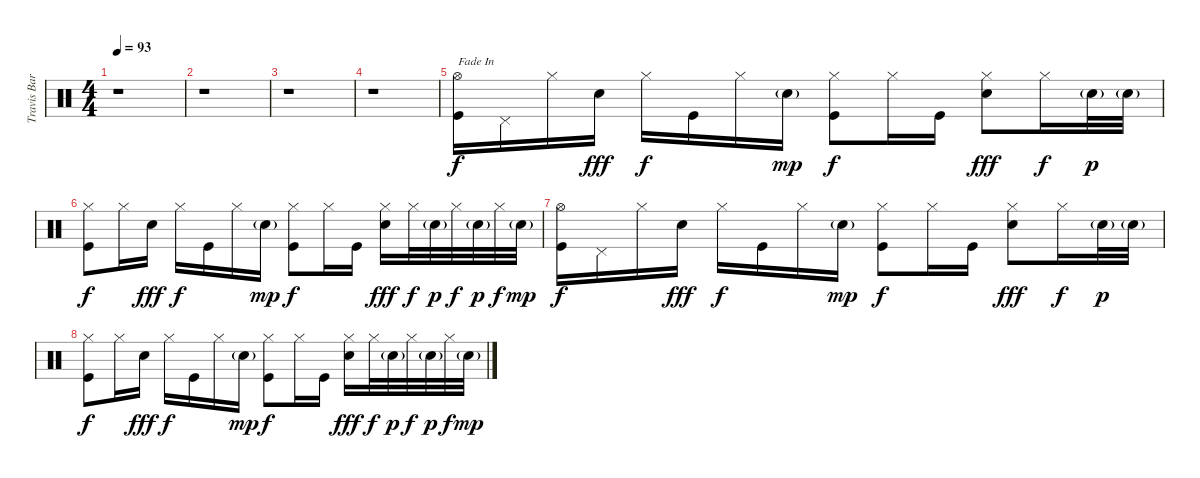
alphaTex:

\track ("Travis Barker" "Travis Bar") {instrument percussion}
\staff {score}
\articulation defaults
\ts (4 4)
\tempo 93
\clef neutral
\ks c
r.1{dy mp} |
r.1 |
r.1 |
r.1 |
("Hi-Hat (open)" "Kick (hit)").16{txt "Fade In" dy f} "Pedal Hi-Hat (hit)".16 "Hi-Hat (closed)".16 "Electric Snare (hit)".16{dy fff} "Hi-Hat (closed)".16{dy f} "Kick (hit)".16 "Hi-Hat (closed)".16 "Electric Snare (hit)"{g}.16{dy mp} ("Hi-Hat (closed)" "Kick (hit)").8{dy f} "Hi-Hat (closed)".16 "Kick (hit)".16 ("Hi-Hat (closed)" "Electric Snare (hit)").8{dy fff} "Hi-Hat (closed)".16{dy f} "Electric Snare (hit)"{g}.32{dy p} "Electric Snare (hit)"{g}.32 |
("Hi-Hat (closed)" "Kick (hit)").8{dy f} "Hi-Hat (closed)".16 "Electric Snare (hit)".16{dy fff} "Hi-Hat (closed)".16{dy f} "Kick (hit)".16 "Hi-Hat (closed)".16 "Electric Snare (hit)"{g}.16{dy mp} ("Hi-Hat (closed)" "Kick (hit)").8{dy f} "Hi-Hat (closed)".16 "Kick (hit)".16 ("Hi-Hat (closed)" "Electric Snare (hit)").16{dy fff} "Hi-Hat (closed)".32{dy f} "Electric Snare (hit)"{g}.32{dy p} "Hi-Hat (closed)".32{dy f} "Electric Snare (hit)"{g}.32{dy p} "Hi-Hat (closed)".32{dy f} "Electric Snare (hit)"{g}.32{dy mp} |
("Hi-Hat (open)" "Kick (hit)").16{dy f} "Pedal Hi-Hat (hit)".16 "Hi-Hat (closed)".16 "Electric Snare (hit)".16{dy fff} "Hi-Hat (closed)".16{dy f} "Kick (hit)".16 "Hi-Hat (closed)".16 "Electric Snare (hit)"{g}.16{dy mp} ("Hi-Hat (closed)" "Kick (hit)").8{dy f} "Hi-Hat (closed)".16 "Kick (hit)".16 ("Hi-Hat (closed)" "Electric Snare (hit)").8{dy fff} "Hi-Hat (closed)".16{dy f} "Electric Snare (hit)"{g}.32{dy p} "Electric Snare (hit)"{g}.32 |
("Hi-Hat (closed)" "Kick (hit)").8{dy f} "Hi-Hat (closed)".16 "Electric Snare (hit)".16{dy fff} "Hi-Hat (closed)".16{dy f} "Kick (hit)".16 "Hi-Hat (closed)".16 "Electric Snare (hit)"{g}.16{dy mp} ("Hi-Hat (closed)" "Kick (hit)").8{dy f} "Hi-Hat (closed)".16 "Kick (hit)".16 ("Hi-Hat (closed)" "Electric Snare (hit)").16{dy fff} "Hi-Hat (closed)".32{dy f} "Electric Snare (hit)"{g}.32{dy p} "Hi-Hat (closed)".32{dy f} "Electric Snare (hit)"{g}.32{dy p} "Hi-Hat (closed)".32{dy f} "Electric Snare (hit)"{g}.32{dy mp}
